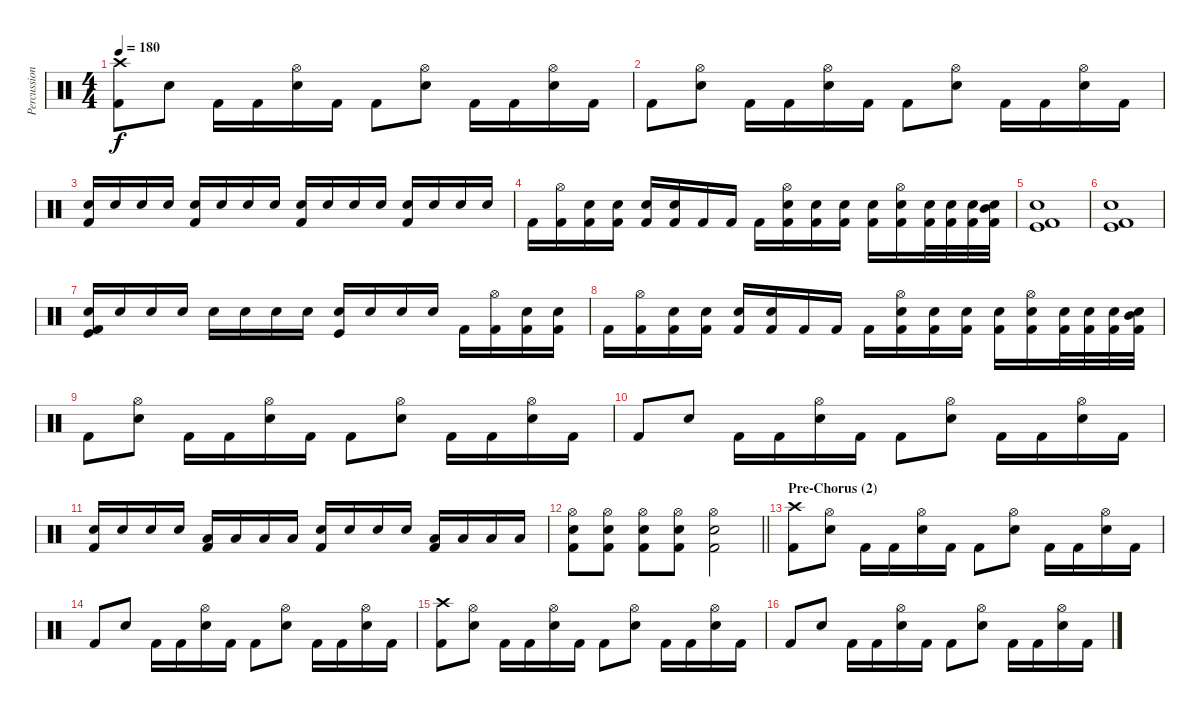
\track ("Percussions" "Percussion") {instrument percussion}
\staff {score}
\articulation defaults
\ts (4 4)
\tempo 180
\clef neutral
\ks c
("Crash high (hit)" "Kick (hit) 2").8{dy f} "Snare (hit) 2".8 "Kick (hit) 2".16 "Kick (hit) 2".16 ("Hi-Hat (open)" "Snare (hit) 2").16 "Kick (hit) 2".16 "Kick (hit) 2".8 ("Hi-Hat (open)" "Snare (hit) 2").8 "Kick (hit) 2".16 "Kick (hit) 2".16 ("Hi-Hat (open)" "Snare (hit) 2").16 "Kick (hit) 2".16 |
"Kick (hit) 2".8 ("Hi-Hat (open)" "Snare (hit) 2").8 "Kick (hit) 2".16 "Kick (hit) 2".16 ("Hi-Hat (open)" "Snare (hit) 2").16 "Kick (hit) 2".16 "Kick (hit) 2".8 ("Hi-Hat (open)" "Snare (hit) 2").8 "Kick (hit) 2".16 "Kick (hit) 2".16 ("Hi-Hat (open)" "Snare (hit) 2").16 "Kick (hit) 2".16 |
("Snare (hit) 2" "Kick (hit) 2").16 "Snare (hit) 2".16 "Snare (hit) 2".16 "Snare (hit) 2".16 ("Snare (hit) 2" "Kick (hit) 2").16 "Snare (hit) 2".16 "Snare (hit) 2".16 "Snare (hit) 2".16 ("Snare (hit) 2" "Kick (hit) 2").16 "Snare (hit) 2".16 "Snare (hit) 2".16 "Snare (hit) 2".16 ("Snare (hit) 2" "Kick (hit) 2").16 "Snare (hit) 2".16 "Snare (hit) 2".16 "Snare (hit) 2".16 |
"Kick (hit) 2".16 ("Hi-Hat (open)" "Kick (hit) 2").16 ("Snare (hit) 2" "Kick (hit) 2").16 ("Snare (hit) 2" "Kick (hit) 2").16 ("Snare (hit) 2" "Kick (hit) 2").16 ("Snare (hit) 2" "Kick (hit) 2").16 "Kick (hit) 2".16 "Kick (hit) 2".16 "Kick (hit) 2".16 ("Hi-Hat (open)" "Snare (hit) 2" "Kick (hit) 2").16 ("Snare (hit) 2" "Kick (hit) 2").16 ("Snare (hit) 2" "Kick (hit) 2").16 ("Snare (hit) 2" "Kick (hit) 2").16 ("Hi-Hat (open)" "Snare (hit) 2" "Kick (hit) 2").16 ("Snare (hit) 2" "Kick (hit) 2").32 ("Snare (hit) 2" "Kick (hit) 2").32 ("Snare (hit) 2" "Kick (hit) 2").32 ("Mid Tom (hit)" "Snare (hit) 2" "Kick (hit) 2").32 |
("Snare (hit) 2" "Kick (hit) 2" "Kick (hit)").1 |
("Snare (hit) 2" "Kick (hit) 2" "Kick (hit)").1 |
("Snare (hit) 2" "Kick (hit) 2" "Kick (hit)").16 "Electric Snare (hit)".16 "Electric Snare (hit)".16 "Electric Snare (hit)".16 "Electric Snare (hit)".16 "Electric Snare (hit)".16 "Electric Snare (hit)".16 "Electric Snare (hit)".16 ("Electric Snare (hit)" "Kick (hit)").16 "Electric Snare (hit)".16 "Electric Snare (hit)".16 "Electric Snare (hit)".16 "Kick (hit) 2".16 ("Hi-Hat (open)" "Kick (hit) 2").16 ("Snare (hit) 2" "Kick (hit) 2").16 ("Snare (hit) 2" "Kick (hit) 2").16 |
"Kick (hit) 2".16 ("Hi-Hat (open)" "Kick (hit) 2").16 ("Snare (hit) 2" "Kick (hit) 2").16 ("Snare (hit) 2" "Kick (hit) 2").16 ("Snare (hit) 2" "Kick (hit) 2").16 ("Snare (hit) 2" "Kick (hit) 2").16 "Kick (hit) 2".16 "Kick (hit) 2".16 "Kick (hit) 2".16 ("Hi-Hat (open)" "Snare (hit) 2" "Kick (hit) 2").16 ("Snare (hit) 2" "Kick (hit) 2").16 ("Snare (hit) 2" "Kick (hit) 2").16 ("Snare (hit) 2" "Kick (hit) 2").16 ("Hi-Hat (open)" "Snare (hit) 2" "Kick (hit) 2").16 ("Snare (hit) 2" "Kick (hit) 2").32 ("Snare (hit) 2" "Kick (hit) 2").32 ("Snare (hit) 2" "Kick (hit) 2").32 ("Mid Tom (hit)" "Snare (hit) 2" "Kick (hit) 2").32 |
"Kick (hit) 2".8 ("Hi-Hat (open)" "Snare (hit) 2").8 "Kick (hit) 2".16 "Kick (hit) 2".16 ("Hi-Hat (open)" "Snare (hit) 2").16 "Kick (hit) 2".16 "Kick (hit) 2".8 ("Hi-Hat (open)" "Snare (hit) 2").8 "Kick (hit) 2".16 "Kick (hit) 2".16 ("Hi-Hat (open)" "Snare (hit) 2").16 "Kick (hit) 2".16 |
"Kick (hit) 2".8 "Snare (hit) 2".8 "Kick (hit) 2".16 "Kick (hit) 2".16 ("Hi-Hat (open)" "Snare (hit) 2").16 "Kick (hit) 2".16 "Kick (hit) 2".8 ("Hi-Hat (open)" "Snare (hit) 2").8 "Kick (hit) 2".16 "Kick (hit) 2".16 ("Hi-Hat (open)" "Snare (hit) 2").16 "Kick (hit) 2".16 |
("Snare (hit) 2" "Kick (hit) 2").16 "Snare (hit) 2".16 "Snare (hit) 2".16 "Snare (hit) 2".16 ("Low Tom (hit)" "Kick (hit) 2").16 "Low Tom (hit)".16 "Low Tom (hit)".16 "Low Tom (hit)".16 ("Snare (hit) 2" "Kick (hit) 2").16 "Snare (hit) 2".16 "Snare (hit) 2".16 "Snare (hit) 2".16 ("Low Floor Tom (hit)" "Kick (hit) 2").16 "Low Floor Tom (hit)".16 "Low Floor Tom (hit)".16 "Low Floor Tom (hit)".16 |
\barLineRight lightlight
("Hi-Hat (open)" "Snare (hit) 2" "Kick (hit) 2").8 ("Hi-Hat (open)" "Snare (hit) 2" "Kick (hit) 2").8 ("Hi-Hat (open)" "Snare (hit) 2" "Kick (hit) 2").8 ("Hi-Hat (open)" "Snare (hit) 2" "Kick (hit) 2").8 ("Hi-Hat (open)" "Snare (hit) 2" "Kick (hit) 2").2 |
\section ("" "Pre-Chorus (2)")
("Crash high (hit)" "Kick (hit) 2").8 ("Hi-Hat (open)" "Snare (hit) 2").8 "Kick (hit) 2".16 "Kick (hit) 2".16 ("Hi-Hat (open)" "Snare (hit) 2").16 "Kick (hit) 2".16 "Kick (hit) 2".8 ("Hi-Hat (open)" "Snare (hit) 2").8 "Kick (hit) 2".16 "Kick (hit) 2".16 ("Hi-Hat (open)" "Snare (hit) 2").16 "Kick (hit) 2".16 |
"Kick (hit) 2".8 "Snare (hit) 2".8 "Kick (hit) 2".16 "Kick (hit) 2".16 ("Hi-Hat (open)" "Snare (hit) 2").16 "Kick (hit) 2".16 "Kick (hit) 2".8 ("Hi-Hat (open)" "Snare (hit) 2").8 "Kick (hit) 2".16 "Kick (hit) 2".16 ("Hi-Hat (open)" "Snare (hit) 2").16 "Kick (hit) 2".16 |
("Crash high (hit)" "Kick (hit) 2").8 ("Hi-Hat (open)" "Snare (hit) 2").8 "Kick (hit) 2".16 "Kick (hit) 2".16 ("Hi-Hat (open)" "Snare (hit) 2").16 "Kick (hit) 2".16 "Kick (hit) 2".8 ("Hi-Hat (open)" "Snare (hit) 2").8 "Kick (hit) 2".16 "Kick (hit) 2".16 ("Hi-Hat (open)" "Snare (hit) 2").16 "Kick (hit) 2".16 |
"Kick (hit) 2".8 "Snare (hit) 2".8 "Kick (hit) 2".16 "Kick (hit) 2".16 ("Hi-Hat (open)" "Snare (hit) 2").16 "Kick (hit) 2".16 "Kick (hit) 2".8 ("Hi-Hat (open)" "Snare (hit) 2").8 "Kick (hit) 2".16 "Kick (hit) 2".16 ("Hi-Hat (open)" "Snare (hit) 2").16 "Kick (hit) 2".16
